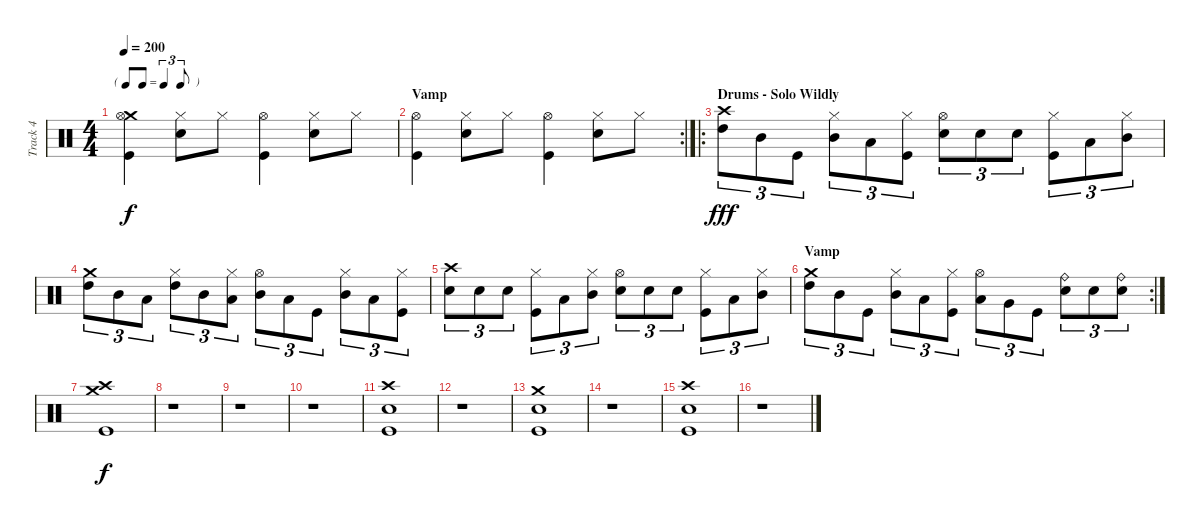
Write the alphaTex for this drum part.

\track ("Track 4" "Track 4") {instrument percussion}
\staff {score}
\articulation defaults
\ts (4 4)
\tf triplet8th
\tempo 200
\clef neutral
\ks c
("Crash medium (hit)" "Hi-Hat (open)" "Kick (hit)").4{dy f} ("Hi-Hat (closed)" "Electric Snare (hit)").8 "Hi-Hat (closed)".8 ("Hi-Hat (open)" "Kick (hit)").4 ("Hi-Hat (closed)" "Electric Snare (hit)").8 "Hi-Hat (closed)".8 |
\rc 2
\section ("" "Vamp")
("Hi-Hat (open)" "Kick (hit)").4 ("Hi-Hat (closed)" "Electric Snare (hit)").8 "Hi-Hat (closed)".8 ("Hi-Hat (open)" "Kick (hit)").4 ("Hi-Hat (closed)" "Electric Snare (hit)").8 "Hi-Hat (closed)".8 |
\ro
\section ("" "Drums - Solo Wildly")
("Crash high (hit)" "High Tom (hit)").8{tu (3 2) dy fff} "Mid Tom (hit)".8{tu (3 2)} "Kick (hit)".8{tu (3 2)} ("Mid Tom (hit)" "Hi-Hat (closed)").8{tu (3 2)} "Low Tom (hit)".8{tu (3 2)} ("Hi-Hat (closed)" "Kick (hit)").8{tu (3 2)} ("Hi-Hat (open)" "Electric Snare (hit)").8{tu (3 2)} "Electric Snare (hit)".8{tu (3 2)} "Electric Snare (hit)".8{tu (3 2)} ("Hi-Hat (closed)" "Kick (hit)").8{tu (3 2)} "Low Tom (hit)".8{tu (3 2)} ("Mid Tom (hit)" "Hi-Hat (closed)").8{tu (3 2)} |
("Crash medium (hit)" "High Tom (hit)").8{tu (3 2)} "Mid Tom (hit)".8{tu (3 2)} "Low Tom (hit)".8{tu (3 2)} ("High Tom (hit)" "Hi-Hat (closed)").8{tu (3 2)} "Mid Tom (hit)".8{tu (3 2)} ("Hi-Hat (closed)" "Low Tom (hit)").8{tu (3 2)} ("Mid Tom (hit)" "Hi-Hat (open)").8{tu (3 2)} "Low Tom (hit)".8{tu (3 2)} "Kick (hit)".8{tu (3 2)} ("Mid Tom (hit)" "Hi-Hat (closed)").8{tu (3 2)} "Low Tom (hit)".8{tu (3 2)} ("Hi-Hat (closed)" "Kick (hit)").8{tu (3 2)} |
("Crash high (hit)" "Electric Snare (hit)").8{tu (3 2)} "Electric Snare (hit)".8{tu (3 2)} "Electric Snare (hit)".8{tu (3 2)} ("Hi-Hat (closed)" "Kick (hit)").8{tu (3 2)} "Low Tom (hit)".8{tu (3 2)} ("Mid Tom (hit)" "Hi-Hat (closed)").8{tu (3 2)} ("Hi-Hat (open)" "Electric Snare (hit)").8{tu (3 2)} "Electric Snare (hit)".8{tu (3 2)} "Electric Snare (hit)".8{tu (3 2)} ("Hi-Hat (closed)" "Kick (hit)").8{tu (3 2)} "Low Tom (hit)".8{tu (3 2)} ("Mid Tom (hit)" "Hi-Hat (closed)").8{tu (3 2)} |
\rc 2
\section ("" "Vamp")
("Crash medium (hit)" "High Tom (hit)").8{tu (3 2)} "Mid Tom (hit)".8{tu (3 2)} "Kick (hit)".8{tu (3 2)} ("Mid Tom (hit)" "Hi-Hat (closed)").8{tu (3 2)} "Low Tom (hit)".8{tu (3 2)} ("Hi-Hat (closed)" "Kick (hit)").8{tu (3 2)} ("Hi-Hat (open)" "Low Tom (hit)").8{tu (3 2)} "Very Low Tom (hit)".8{tu (3 2)} "Kick (hit)".8{tu (3 2)} ("Ride (bell)" "Electric Snare (hit)").8{tu (3 2)} "Electric Snare (hit)".8{tu (3 2)} ("Ride (bell)" "Electric Snare (hit)").8{tu (3 2)} |
("Crash medium (hit)" "Crash high (hit)" "Kick (hit)").1{dy f} |
r.1 |
r.1 |
r.1 |
("Crash high (hit)" "Electric Snare (hit)" "Kick (hit)").1 |
r.1 |
("Crash medium (hit)" "Electric Snare (hit)" "Kick (hit)").1 |
r.1 |
("Crash high (hit)" "Electric Snare (hit)" "Kick (hit)").1 |
r.1
